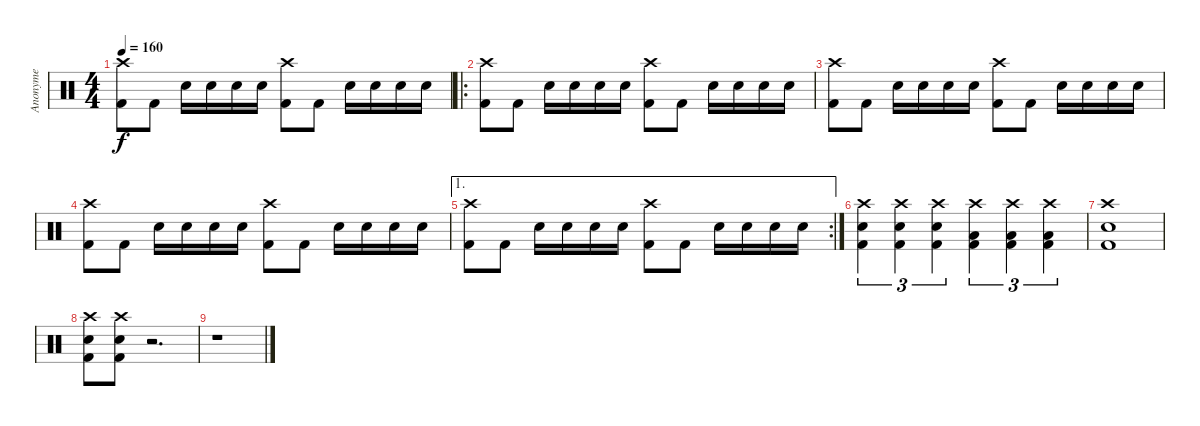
\track ("Anonyme" "Anonyme") {instrument percussion}
\staff {score}
\articulation defaults
\ts (4 4)
\tempo 160
\clef neutral
\ks c
("Crash high (hit)" "Kick (hit) 2").8{dy f} "Kick (hit) 2".8 "Snare (hit) 2".16 "Snare (hit) 2".16 "Snare (hit) 2".16 "Snare (hit) 2".16 ("Crash high (hit)" "Kick (hit) 2").8 "Kick (hit) 2".8 "Snare (hit) 2".16 "Snare (hit) 2".16 "Snare (hit) 2".16 "Snare (hit) 2".16 |
\ro
("Crash high (hit)" "Kick (hit) 2").8 "Kick (hit) 2".8 "Snare (hit) 2".16 "Snare (hit) 2".16 "Snare (hit) 2".16 "Snare (hit) 2".16 ("Crash high (hit)" "Kick (hit) 2").8 "Kick (hit) 2".8 "Snare (hit) 2".16 "Snare (hit) 2".16 "Snare (hit) 2".16 "Snare (hit) 2".16 |
("Crash high (hit)" "Kick (hit) 2").8 "Kick (hit) 2".8 "Snare (hit) 2".16 "Snare (hit) 2".16 "Snare (hit) 2".16 "Snare (hit) 2".16 ("Crash high (hit)" "Kick (hit) 2").8 "Kick (hit) 2".8 "Snare (hit) 2".16 "Snare (hit) 2".16 "Snare (hit) 2".16 "Snare (hit) 2".16 |
("Crash high (hit)" "Kick (hit) 2").8 "Kick (hit) 2".8 "Snare (hit) 2".16 "Snare (hit) 2".16 "Snare (hit) 2".16 "Snare (hit) 2".16 ("Crash high (hit)" "Kick (hit) 2").8 "Kick (hit) 2".8 "Snare (hit) 2".16 "Snare (hit) 2".16 "Snare (hit) 2".16 "Snare (hit) 2".16 |
\ae 1
\rc 2
("Crash high (hit)" "Kick (hit) 2").8 "Kick (hit) 2".8 "Snare (hit) 2".16 "Snare (hit) 2".16 "Snare (hit) 2".16 "Snare (hit) 2".16 ("Crash high (hit)" "Kick (hit) 2").8 "Kick (hit) 2".8 "Snare (hit) 2".16 "Snare (hit) 2".16 "Snare (hit) 2".16 "Snare (hit) 2".16 |
("Crash high (hit)" "Kick (hit) 2" "Snare (hit) 2").4{tu (3 2)} ("Crash high (hit)" "Kick (hit) 2" "Snare (hit) 2").4{tu (3 2)} ("Crash high (hit)" "Kick (hit) 2" "Snare (hit) 2").4{tu (3 2)} ("Crash high (hit)" "Kick (hit) 2" "Low Floor Tom (hit)").4{tu (3 2)} ("Crash high (hit)" "Kick (hit) 2" "Low Floor Tom (hit)").4{tu (3 2)} ("Crash high (hit)" "Kick (hit) 2" "Low Floor Tom (hit)").4{tu (3 2)} |
("Crash high (hit)" "Snare (hit) 2" "Kick (hit) 2").1 |
("Crash high (hit)" "Snare (hit) 2" "Kick (hit) 2").8 ("Crash high (hit)" "Snare (hit) 2" "Kick (hit) 2").8 r.2{d} |
r.1
